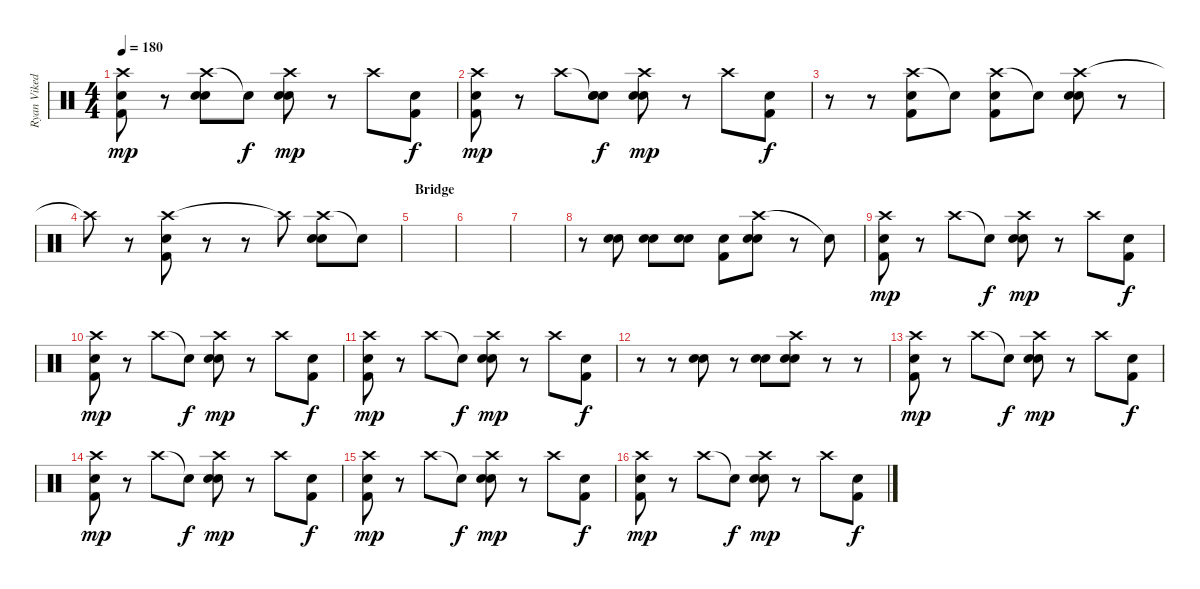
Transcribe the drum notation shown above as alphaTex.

\track ("Ryan Vikedal(drums)" "Ryan Viked") {instrument percussion}
\staff {score}
\articulation defaults
\ts (4 4)
\tempo 180
\clef neutral
\ks c
("Crash high (hit)" "Electric Snare (hit)" "Kick (hit) 2").8{dy mp} r.8 ("Crash high (hit)" "Electric Snare (hit)" "Electric Snare (hit)").8 "Snare (hit)"{t}.8{dy f} ("Crash high (hit)" "Electric Snare (hit)" "Electric Snare (hit)").8{dy mp} r.8 "Crash high (hit)".8 ("Kick (hit) 2" "Electric Snare (hit)").8{dy f} |
("Crash high (hit)" "Electric Snare (hit)" "Kick (hit) 2").8{dy mp} r.8 "Crash high (hit)".8 ("Snare (hit)"{t} "Electric Snare (hit)" "Electric Snare (hit)").8{dy f} ("Crash high (hit)" "Electric Snare (hit)" "Electric Snare (hit)").8{dy mp} r.8 "Crash high (hit)".8 ("Kick (hit) 2" "Electric Snare (hit)").8{dy f} |
r.8 r.8 ("Crash high (hit)" "Electric Snare (hit)" "Kick (hit) 2").8 "Snare (hit)"{t}.8 ("Crash high (hit)" "Electric Snare (hit)" "Kick (hit) 2").8 "Snare (hit)"{t}.8 ("Crash high (hit)" "Electric Snare (hit)" "Electric Snare (hit)").8 r.8 |
"Crash high (hit)"{t}.8 r.8 ("Crash high (hit)" "Electric Snare (hit)" "Kick (hit) 2").8 r.8 r.8 "Crash high (hit)"{t}.8 ("Crash high (hit)" "Electric Snare (hit)" "Electric Snare (hit)").8 "Snare (hit)"{t}.8 |
\section ("" "Bridge")
|
|
|
r.8 ("Electric Snare (hit)" "Electric Snare (hit)").8 ("Electric Snare (hit)" "Electric Snare (hit)").8 ("Electric Snare (hit)" "Electric Snare (hit)").8 ("Electric Snare (hit)" "Kick (hit) 2").8 ("Crash high (hit)" "Electric Snare (hit)" "Electric Snare (hit)").8 r.8 "Snare (hit)"{t}.8 |
("Crash high (hit)" "Electric Snare (hit)" "Kick (hit) 2").8{dy mp} r.8 "Crash high (hit)".8 "Snare (hit)"{t}.8{dy f} ("Crash high (hit)" "Electric Snare (hit)" "Electric Snare (hit)").8{dy mp} r.8 "Crash high (hit)".8 ("Kick (hit) 2" "Electric Snare (hit)").8{dy f} |
("Crash high (hit)" "Electric Snare (hit)" "Kick (hit) 2").8{dy mp} r.8 "Crash high (hit)".8 "Snare (hit)"{t}.8{dy f} ("Crash high (hit)" "Electric Snare (hit)" "Electric Snare (hit)").8{dy mp} r.8 "Crash high (hit)".8 ("Kick (hit) 2" "Electric Snare (hit)").8{dy f} |
("Crash high (hit)" "Electric Snare (hit)" "Kick (hit) 2").8{dy mp} r.8 "Crash high (hit)".8 "Snare (hit)"{t}.8{dy f} ("Crash high (hit)" "Electric Snare (hit)" "Electric Snare (hit)").8{dy mp} r.8 "Crash high (hit)".8 ("Kick (hit) 2" "Electric Snare (hit)").8{dy f} |
r.8 r.8 ("Electric Snare (hit)" "Electric Snare (hit)").8 r.8 ("Electric Snare (hit)" "Electric Snare (hit)").8 ("Crash high (hit)" "Electric Snare (hit)" "Electric Snare (hit)").8 r.8 r.8 |
("Crash high (hit)" "Electric Snare (hit)" "Kick (hit) 2").8{dy mp} r.8 "Crash high (hit)".8 "Snare (hit)"{t}.8{dy f} ("Crash high (hit)" "Electric Snare (hit)" "Electric Snare (hit)").8{dy mp} r.8 "Crash high (hit)".8 ("Kick (hit) 2" "Electric Snare (hit)").8{dy f} |
("Crash high (hit)" "Electric Snare (hit)" "Kick (hit) 2").8{dy mp} r.8 "Crash high (hit)".8 "Snare (hit)"{t}.8{dy f} ("Crash high (hit)" "Electric Snare (hit)" "Electric Snare (hit)").8{dy mp} r.8 "Crash high (hit)".8 ("Kick (hit) 2" "Electric Snare (hit)").8{dy f} |
("Crash high (hit)" "Electric Snare (hit)" "Kick (hit) 2").8{dy mp} r.8 "Crash high (hit)".8 "Snare (hit)"{t}.8{dy f} ("Crash high (hit)" "Electric Snare (hit)" "Electric Snare (hit)").8{dy mp} r.8 "Crash high (hit)".8 ("Kick (hit) 2" "Electric Snare (hit)").8{dy f} |
("Crash high (hit)" "Electric Snare (hit)" "Kick (hit) 2").8{dy mp} r.8 "Crash high (hit)".8 "Snare (hit)"{t}.8{dy f} ("Crash high (hit)" "Electric Snare (hit)" "Electric Snare (hit)").8{dy mp} r.8 "Crash high (hit)".8 ("Kick (hit) 2" "Electric Snare (hit)").8{dy f}
